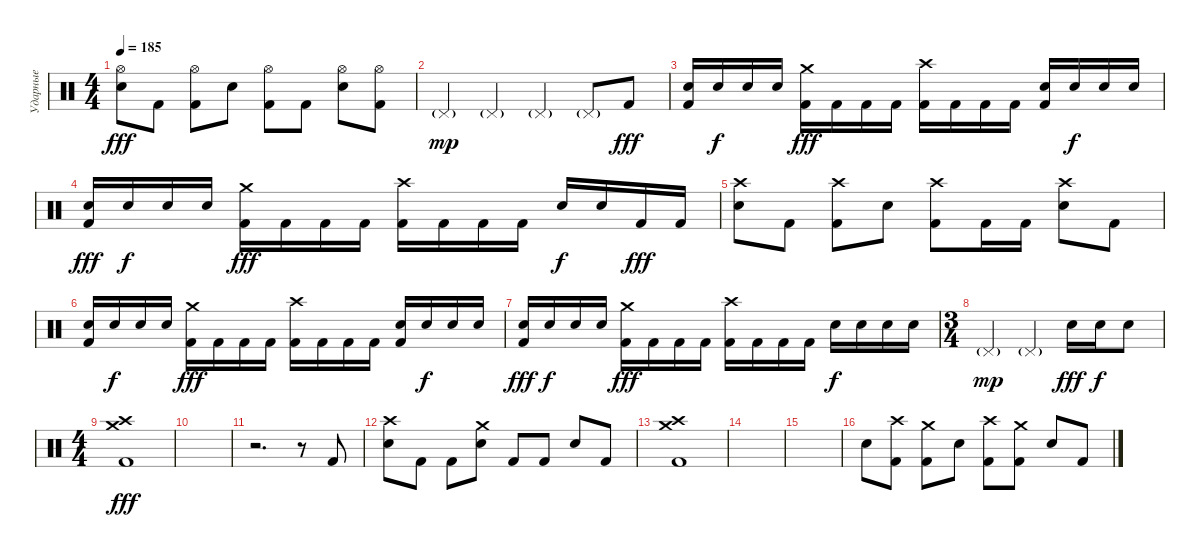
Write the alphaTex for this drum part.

\track ("Ударные" "Ударные") {instrument percussion}
\staff {score}
\articulation defaults
\ts (4 4)
\tempo 185
\clef neutral
\ks c
("Hi-Hat (open)" "Electric Snare (hit)").8{dy fff} "Kick (hit) 2".8 ("Hi-Hat (open)" "Kick (hit) 2").8 "Electric Snare (hit)".8 ("Hi-Hat (open)" "Kick (hit) 2").8 "Kick (hit) 2".8 ("Hi-Hat (open)" "Electric Snare (hit)").8 ("Hi-Hat (open)" "Kick (hit) 2").8 |
"Pedal Hi-Hat (hit)"{g}.4{dy mp} "Pedal Hi-Hat (hit)"{g}.4 "Pedal Hi-Hat (hit)"{g}.4 "Pedal Hi-Hat (hit)"{g}.8 "Kick (hit) 2".8{dy fff} |
("Electric Snare (hit)" "Kick (hit) 2").16 "Electric Snare (hit)".16{dy f} "Electric Snare (hit)".16 "Electric Snare (hit)".16 ("Crash medium (hit)" "Kick (hit) 2").16{dy fff} "Kick (hit) 2".16 "Kick (hit) 2".16 "Kick (hit) 2".16 ("Crash high (hit)" "Kick (hit) 2").16 "Kick (hit) 2".16 "Kick (hit) 2".16 "Kick (hit) 2".16 ("Electric Snare (hit)" "Kick (hit) 2").16 "Electric Snare (hit)".16{dy f} "Electric Snare (hit)".16 "Electric Snare (hit)".16 |
("Electric Snare (hit)" "Kick (hit) 2").16{dy fff} "Electric Snare (hit)".16{dy f} "Electric Snare (hit)".16 "Electric Snare (hit)".16 ("Crash medium (hit)" "Kick (hit) 2").16{dy fff} "Kick (hit) 2".16 "Kick (hit) 2".16 "Kick (hit) 2".16 ("Crash high (hit)" "Kick (hit) 2").16 "Kick (hit) 2".16 "Kick (hit) 2".16 "Kick (hit) 2".16 "Electric Snare (hit)".16{dy f} "Electric Snare (hit)".16 "Kick (hit) 2".16{dy fff} "Kick (hit) 2".16 |
("Crash high (hit)" "Electric Snare (hit)").8 "Kick (hit) 2".8 ("Crash high (hit)" "Kick (hit) 2").8 "Electric Snare (hit)".8 ("Crash high (hit)" "Kick (hit) 2").8 "Kick (hit) 2".16 "Kick (hit) 2".16 ("Crash high (hit)" "Electric Snare (hit)").8 "Kick (hit) 2".8 |
("Electric Snare (hit)" "Kick (hit) 2").16 "Electric Snare (hit)".16{dy f} "Electric Snare (hit)".16 "Electric Snare (hit)".16 ("Crash medium (hit)" "Kick (hit) 2").16{dy fff} "Kick (hit) 2".16 "Kick (hit) 2".16 "Kick (hit) 2".16 ("Crash high (hit)" "Kick (hit) 2").16 "Kick (hit) 2".16 "Kick (hit) 2".16 "Kick (hit) 2".16 ("Electric Snare (hit)" "Kick (hit) 2").16 "Electric Snare (hit)".16{dy f} "Electric Snare (hit)".16 "Electric Snare (hit)".16 |
("Electric Snare (hit)" "Kick (hit) 2").16{dy fff} "Electric Snare (hit)".16{dy f} "Electric Snare (hit)".16 "Electric Snare (hit)".16 ("Crash medium (hit)" "Kick (hit) 2").16{dy fff} "Kick (hit) 2".16 "Kick (hit) 2".16 "Kick (hit) 2".16 ("Crash high (hit)" "Kick (hit) 2").16 "Kick (hit) 2".16 "Kick (hit) 2".16 "Kick (hit) 2".16 "Electric Snare (hit)".16{dy f} "Electric Snare (hit)".16 "Electric Snare (hit)".16 "Electric Snare (hit)".16 |
\ts (3 4)
"Pedal Hi-Hat (hit)"{g}.4{dy mp} "Pedal Hi-Hat (hit)"{g}.4 "Electric Snare (hit)".16{dy fff} "Electric Snare (hit)".16{dy f} "Electric Snare (hit)".8 |
\ts (4 4)
("Crash medium (hit)" "Crash high (hit)" "Kick (hit) 2").1{dy fff} |
|
r.2{d} r.8 "Kick (hit) 2".8 |
("Crash high (hit)" "Electric Snare (hit)").8 "Kick (hit) 2".8 "Kick (hit) 2".8 ("Crash medium (hit)" "Electric Snare (hit)").8 "Kick (hit) 2".8 "Kick (hit) 2".8 "Electric Snare (hit)".8 "Kick (hit) 2".8 |
("Crash medium (hit)" "Crash high (hit)" "Kick (hit) 2").1 |
|
|
"Electric Snare (hit)".8 ("Crash high (hit)" "Kick (hit) 2").8 ("Crash medium (hit)" "Kick (hit) 2").8 "Electric Snare (hit)".8 ("Crash high (hit)" "Kick (hit) 2").8 ("Crash medium (hit)" "Kick (hit) 2").8 "Electric Snare (hit)".8 "Kick (hit) 2".8
